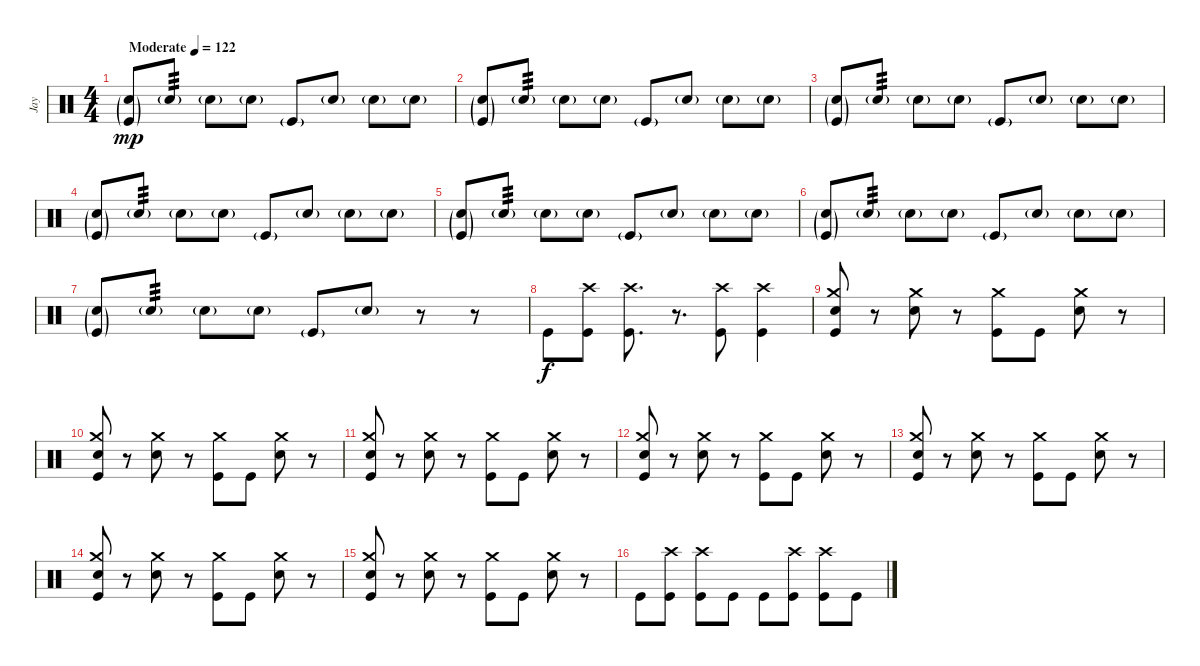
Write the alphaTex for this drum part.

\track ("Jay" "Jay") {instrument percussion}
\staff {score}
\articulation defaults
\ts (4 4)
\tempo (122 "Moderate")
\clef neutral
\ks c
("Electric Snare (hit)"{g} "Kick (hit)"{g}).8{dy mp} "Electric Snare (hit)"{g}.8{tp 3} "Electric Snare (hit)"{g}.8 "Electric Snare (hit)"{g}.8 "Kick (hit)"{g}.8 "Electric Snare (hit)"{g}.8 "Electric Snare (hit)"{g}.8 "Electric Snare (hit)"{g}.8 |
("Electric Snare (hit)"{g} "Kick (hit)"{g}).8 "Electric Snare (hit)"{g}.8{tp 3} "Electric Snare (hit)"{g}.8 "Electric Snare (hit)"{g}.8 "Kick (hit)"{g}.8 "Electric Snare (hit)"{g}.8 "Electric Snare (hit)"{g}.8 "Electric Snare (hit)"{g}.8 |
("Electric Snare (hit)"{g} "Kick (hit)"{g}).8 "Electric Snare (hit)"{g}.8{tp 3} "Electric Snare (hit)"{g}.8 "Electric Snare (hit)"{g}.8 "Kick (hit)"{g}.8 "Electric Snare (hit)"{g}.8 "Electric Snare (hit)"{g}.8 "Electric Snare (hit)"{g}.8 |
("Electric Snare (hit)"{g} "Kick (hit)"{g}).8 "Electric Snare (hit)"{g}.8{tp 3} "Electric Snare (hit)"{g}.8 "Electric Snare (hit)"{g}.8 "Kick (hit)"{g}.8 "Electric Snare (hit)"{g}.8 "Electric Snare (hit)"{g}.8 "Electric Snare (hit)"{g}.8 |
("Electric Snare (hit)"{g} "Kick (hit)"{g}).8 "Electric Snare (hit)"{g}.8{tp 3} "Electric Snare (hit)"{g}.8 "Electric Snare (hit)"{g}.8 "Kick (hit)"{g}.8 "Electric Snare (hit)"{g}.8 "Electric Snare (hit)"{g}.8 "Electric Snare (hit)"{g}.8 |
("Electric Snare (hit)"{g} "Kick (hit)"{g}).8 "Electric Snare (hit)"{g}.8{tp 3} "Electric Snare (hit)"{g}.8 "Electric Snare (hit)"{g}.8 "Kick (hit)"{g}.8 "Electric Snare (hit)"{g}.8 "Electric Snare (hit)"{g}.8 "Electric Snare (hit)"{g}.8 |
("Electric Snare (hit)"{g} "Kick (hit)"{g}).8 "Electric Snare (hit)"{g}.8{tp 3} "Electric Snare (hit)"{g}.8 "Electric Snare (hit)"{g}.8 "Kick (hit)"{g}.8 "Electric Snare (hit)"{g}.8 r.8 r.8 |
"Kick (hit)".8{dy f} ("Crash high (hit)" "Kick (hit)").8 ("Crash high (hit)" "Kick (hit)").8{d} r.8{d} ("Crash high (hit)" "Kick (hit)").8 ("Crash high (hit)" "Kick (hit)").4 |
("Crash medium (hit)" "Kick (hit)" "Snare (hit)").8 r.8 ("Crash medium (hit)" "Electric Snare (hit)").8 r.8 ("Crash medium (hit)" "Kick (hit)").8 "Kick (hit)".8 ("Crash medium (hit)" "Electric Snare (hit)").8 r.8 |
("Crash medium (hit)" "Kick (hit)" "Snare (hit)").8 r.8 ("Crash medium (hit)" "Electric Snare (hit)").8 r.8 ("Crash medium (hit)" "Kick (hit)").8 "Kick (hit)".8 ("Crash medium (hit)" "Electric Snare (hit)").8 r.8 |
("Crash medium (hit)" "Kick (hit)" "Snare (hit)").8 r.8 ("Crash medium (hit)" "Electric Snare (hit)").8 r.8 ("Crash medium (hit)" "Kick (hit)").8 "Kick (hit)".8 ("Crash medium (hit)" "Electric Snare (hit)").8 r.8 |
("Crash medium (hit)" "Kick (hit)" "Snare (hit)").8 r.8 ("Crash medium (hit)" "Electric Snare (hit)").8 r.8 ("Crash medium (hit)" "Kick (hit)").8 "Kick (hit)".8 ("Crash medium (hit)" "Electric Snare (hit)").8 r.8 |
("Crash medium (hit)" "Kick (hit)" "Snare (hit)").8 r.8 ("Crash medium (hit)" "Electric Snare (hit)").8 r.8 ("Crash medium (hit)" "Kick (hit)").8 "Kick (hit)".8 ("Crash medium (hit)" "Electric Snare (hit)").8 r.8 |
("Crash medium (hit)" "Kick (hit)" "Snare (hit)").8 r.8 ("Crash medium (hit)" "Electric Snare (hit)").8 r.8 ("Crash medium (hit)" "Kick (hit)").8 "Kick (hit)".8 ("Crash medium (hit)" "Electric Snare (hit)").8 r.8 |
("Crash medium (hit)" "Kick (hit)" "Snare (hit)").8 r.8 ("Crash medium (hit)" "Electric Snare (hit)").8 r.8 ("Crash medium (hit)" "Kick (hit)").8 "Kick (hit)".8 ("Crash medium (hit)" "Electric Snare (hit)").8 r.8 |
"Kick (hit)".8 ("Crash high (hit)" "Kick (hit)").8 ("Crash high (hit)" "Kick (hit)").8 "Kick (hit)".8 "Kick (hit)".8 ("Crash high (hit)" "Kick (hit)").8 ("Crash high (hit)" "Kick (hit)").8 "Kick (hit)".8
